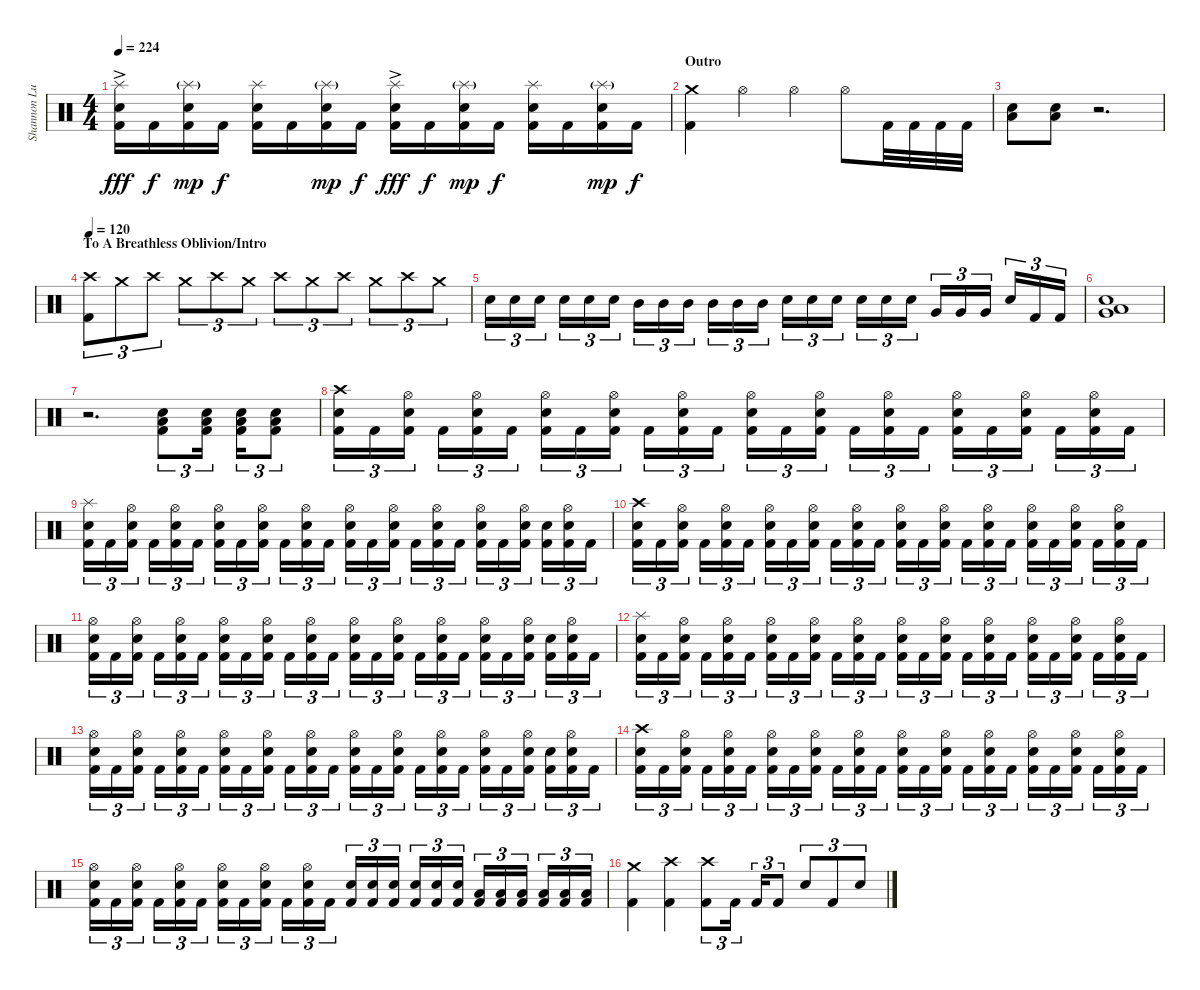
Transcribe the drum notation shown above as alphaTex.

\track ("Shannon Lucas (Drums)" "Shannon Lu") {instrument percussion}
\staff {score}
\articulation defaults
\ts (4 4)
\tempo 224
\clef neutral
\ks c
("Splash (hit)"{ac} "Snare (hit) 2" "Kick (hit) 2").16{dy fff} "Kick (hit) 2".16{dy f} ("Splash (hit)"{g} "Snare (hit) 2" "Kick (hit) 2").16{dy mp} "Kick (hit) 2".16{dy f} ("Splash (hit)" "Snare (hit) 2" "Kick (hit) 2").16 "Kick (hit) 2".16 ("Splash (hit)"{g} "Snare (hit) 2" "Kick (hit) 2").16{dy mp} "Kick (hit) 2".16{dy f} ("Splash (hit)"{ac} "Snare (hit) 2" "Kick (hit) 2").16{dy fff} "Kick (hit) 2".16{dy f} ("Splash (hit)"{g} "Snare (hit) 2" "Kick (hit) 2").16{dy mp} "Kick (hit) 2".16{dy f} ("Splash (hit)" "Snare (hit) 2" "Kick (hit) 2").16 "Kick (hit) 2".16 ("Splash (hit)"{g} "Snare (hit) 2" "Kick (hit) 2").16{dy mp} "Kick (hit) 2".16{dy f} |
\section ("" "Outro")
("Crash medium (hit)" "Kick (hit) 2").4{balance 8} "Hi-Hat (open)".4 "Hi-Hat (open)".4 "Hi-Hat (open)".8 "Kick (hit) 2".32 "Kick (hit) 2".32 "Kick (hit) 2".32 "Kick (hit) 2".32 |
("Low Floor Tom (hit)" "Snare (hit) 2").8 ("Low Floor Tom (hit)" "Snare (hit) 2").8 r.2{d} |
\section ("" "To A Breathless Oblivion/Intro")
\tempo 120
("Crash high (hit)" "Kick (hit) 2").8{tu (3 2)} "Crash medium (hit)".8{tu (3 2)} "Crash high (hit)".8{tu (3 2)} "Crash medium (hit)".8{tu (3 2)} "Crash high (hit)".8{tu (3 2)} "Crash medium (hit)".8{tu (3 2)} "Crash high (hit)".8{tu (3 2)} "Crash medium (hit)".8{tu (3 2)} "Crash high (hit)".8{tu (3 2)} "Crash medium (hit)".8{tu (3 2)} "Crash high (hit)".8{tu (3 2)} "Crash medium (hit)".8{tu (3 2)} |
"Snare (hit) 2".16{tu (3 2)} "Snare (hit) 2".16{tu (3 2)} "Snare (hit) 2".16{tu (3 2)} "Snare (hit) 2".16{tu (3 2)} "Snare (hit) 2".16{tu (3 2)} "Snare (hit) 2".16{tu (3 2)} "Mid Tom (hit)".16{tu (3 2)} "Mid Tom (hit)".16{tu (3 2)} "Mid Tom (hit)".16{tu (3 2)} "Mid Tom (hit)".16{tu (3 2)} "Mid Tom (hit)".16{tu (3 2)} "Mid Tom (hit)".16{tu (3 2)} "Snare (hit) 2".16{tu (3 2)} "Snare (hit) 2".16{tu (3 2)} "Snare (hit) 2".16{tu (3 2)} "Snare (hit) 2".16{tu (3 2)} "Snare (hit) 2".16{tu (3 2)} "Snare (hit) 2".16{tu (3 2)} "Very Low Tom (hit)".16{tu (3 2)} "Very Low Tom (hit)".16{tu (3 2)} "Very Low Tom (hit)".16{tu (3 2)} "Snare (hit) 2".16{tu (3 2)} "Kick (hit) 2".16{tu (3 2)} "Kick (hit) 2".16{tu (3 2)} |
("Very Low Tom (hit)" "Low Floor Tom (hit)" "Snare (hit) 2").1 |
r.2{d} ("Kick (hit) 2" "Low Floor Tom (hit)" "Snare (hit) 2").8{tu (3 2)} ("Kick (hit) 2" "Low Floor Tom (hit)" "Snare (hit) 2").16{tu (3 2)} ("Kick (hit) 2" "Low Floor Tom (hit)" "Snare (hit) 2").16{tu (3 2)} ("Kick (hit) 2" "Low Floor Tom (hit)" "Snare (hit) 2").8{tu (3 2)} |
("Kick (hit) 2" "Crash high (hit)" "Snare (hit) 2").16{tu (3 2)} "Kick (hit) 2".16{tu (3 2)} ("Hi-Hat (open)" "Snare (hit) 2" "Kick (hit) 2").16{tu (3 2)} "Kick (hit) 2".16{tu (3 2)} ("Hi-Hat (open)" "Snare (hit) 2" "Kick (hit) 2").16{tu (3 2)} "Kick (hit) 2".16{tu (3 2)} ("Hi-Hat (open)" "Snare (hit) 2" "Kick (hit) 2").16{tu (3 2)} "Kick (hit) 2".16{tu (3 2)} ("Hi-Hat (open)" "Snare (hit) 2" "Kick (hit) 2").16{tu (3 2)} "Kick (hit) 2".16{tu (3 2)} ("Hi-Hat (open)" "Snare (hit) 2" "Kick (hit) 2").16{tu (3 2)} "Kick (hit) 2".16{tu (3 2)} ("Hi-Hat (open)" "Snare (hit) 2" "Kick (hit) 2").16{tu (3 2)} "Kick (hit) 2".16{tu (3 2)} ("Hi-Hat (open)" "Snare (hit) 2" "Kick (hit) 2").16{tu (3 2)} "Kick (hit) 2".16{tu (3 2)} ("Hi-Hat (open)" "Snare (hit) 2" "Kick (hit) 2").16{tu (3 2)} "Kick (hit) 2".16{tu (3 2)} ("Hi-Hat (open)" "Snare (hit) 2" "Kick (hit) 2").16{tu (3 2)} "Kick (hit) 2".16{tu (3 2)} ("Hi-Hat (open)" "Snare (hit) 2" "Kick (hit) 2").16{tu (3 2)} "Kick (hit) 2".16{tu (3 2)} ("Hi-Hat (open)" "Snare (hit) 2" "Kick (hit) 2").16{tu (3 2)} "Kick (hit) 2".16{tu (3 2)} |
("Snare (hit) 2" "Splash (hit)" "Kick (hit) 2").16{tu (3 2)} "Kick (hit) 2".16{tu (3 2)} ("Hi-Hat (open)" "Snare (hit) 2" "Kick (hit) 2").16{tu (3 2)} "Kick (hit) 2".16{tu (3 2)} ("Hi-Hat (open)" "Snare (hit) 2" "Kick (hit) 2").16{tu (3 2)} "Kick (hit) 2".16{tu (3 2)} ("Hi-Hat (open)" "Snare (hit) 2" "Kick (hit) 2").16{tu (3 2)} "Kick (hit) 2".16{tu (3 2)} ("Hi-Hat (open)" "Snare (hit) 2" "Kick (hit) 2").16{tu (3 2)} "Kick (hit) 2".16{tu (3 2)} ("Hi-Hat (open)" "Snare (hit) 2" "Kick (hit) 2").16{tu (3 2)} "Kick (hit) 2".16{tu (3 2)} ("Hi-Hat (open)" "Snare (hit) 2" "Kick (hit) 2").16{tu (3 2)} "Kick (hit) 2".16{tu (3 2)} ("Hi-Hat (open)" "Snare (hit) 2" "Kick (hit) 2").16{tu (3 2)} "Kick (hit) 2".16{tu (3 2)} ("Hi-Hat (open)" "Snare (hit) 2" "Kick (hit) 2").16{tu (3 2)} "Kick (hit) 2".16{tu (3 2)} ("Hi-Hat (open)" "Snare (hit) 2" "Kick (hit) 2").16{tu (3 2)} "Kick (hit) 2".16{tu (3 2)} ("Hi-Hat (open)" "Snare (hit) 2" "Kick (hit) 2").16{tu (3 2)} ("Snare (hit) 2" "Kick (hit) 2").16{tu (3 2)} ("Hi-Hat (open)" "Snare (hit) 2" "Kick (hit) 2").16{tu (3 2)} "Kick (hit) 2".16{tu (3 2)} |
("Kick (hit) 2" "Crash high (hit)" "Snare (hit) 2").16{tu (3 2)} "Kick (hit) 2".16{tu (3 2)} ("Hi-Hat (open)" "Snare (hit) 2" "Kick (hit) 2").16{tu (3 2)} "Kick (hit) 2".16{tu (3 2)} ("Hi-Hat (open)" "Snare (hit) 2" "Kick (hit) 2").16{tu (3 2)} "Kick (hit) 2".16{tu (3 2)} ("Hi-Hat (open)" "Snare (hit) 2" "Kick (hit) 2").16{tu (3 2)} "Kick (hit) 2".16{tu (3 2)} ("Hi-Hat (open)" "Snare (hit) 2" "Kick (hit) 2").16{tu (3 2)} "Kick (hit) 2".16{tu (3 2)} ("Hi-Hat (open)" "Snare (hit) 2" "Kick (hit) 2").16{tu (3 2)} "Kick (hit) 2".16{tu (3 2)} ("Hi-Hat (open)" "Snare (hit) 2" "Kick (hit) 2").16{tu (3 2)} "Kick (hit) 2".16{tu (3 2)} ("Hi-Hat (open)" "Snare (hit) 2" "Kick (hit) 2").16{tu (3 2)} "Kick (hit) 2".16{tu (3 2)} ("Hi-Hat (open)" "Snare (hit) 2" "Kick (hit) 2").16{tu (3 2)} "Kick (hit) 2".16{tu (3 2)} ("Hi-Hat (open)" "Snare (hit) 2" "Kick (hit) 2").16{tu (3 2)} "Kick (hit) 2".16{tu (3 2)} ("Hi-Hat (open)" "Snare (hit) 2" "Kick (hit) 2").16{tu (3 2)} "Kick (hit) 2".16{tu (3 2)} ("Hi-Hat (open)" "Snare (hit) 2" "Kick (hit) 2").16{tu (3 2)} "Kick (hit) 2".16{tu (3 2)} |
("Snare (hit) 2" "Hi-Hat (open)" "Kick (hit) 2").16{tu (3 2)} "Kick (hit) 2".16{tu (3 2)} ("Hi-Hat (open)" "Snare (hit) 2" "Kick (hit) 2").16{tu (3 2)} "Kick (hit) 2".16{tu (3 2)} ("Hi-Hat (open)" "Snare (hit) 2" "Kick (hit) 2").16{tu (3 2)} "Kick (hit) 2".16{tu (3 2)} ("Hi-Hat (open)" "Snare (hit) 2" "Kick (hit) 2").16{tu (3 2)} "Kick (hit) 2".16{tu (3 2)} ("Hi-Hat (open)" "Snare (hit) 2" "Kick (hit) 2").16{tu (3 2)} "Kick (hit) 2".16{tu (3 2)} ("Hi-Hat (open)" "Snare (hit) 2" "Kick (hit) 2").16{tu (3 2)} "Kick (hit) 2".16{tu (3 2)} ("Hi-Hat (open)" "Snare (hit) 2" "Kick (hit) 2").16{tu (3 2)} "Kick (hit) 2".16{tu (3 2)} ("Hi-Hat (open)" "Snare (hit) 2" "Kick (hit) 2").16{tu (3 2)} "Kick (hit) 2".16{tu (3 2)} ("Hi-Hat (open)" "Snare (hit) 2" "Kick (hit) 2").16{tu (3 2)} "Kick (hit) 2".16{tu (3 2)} ("Hi-Hat (open)" "Snare (hit) 2" "Kick (hit) 2").16{tu (3 2)} "Kick (hit) 2".16{tu (3 2)} ("Hi-Hat (open)" "Snare (hit) 2" "Kick (hit) 2").16{tu (3 2)} ("Snare (hit) 2" "Kick (hit) 2").16{tu (3 2)} ("Hi-Hat (open)" "Snare (hit) 2" "Kick (hit) 2").16{tu (3 2)} "Kick (hit) 2".16{tu (3 2)} |
("Kick (hit) 2" "Splash (hit)" "Snare (hit) 2").16{tu (3 2)} "Kick (hit) 2".16{tu (3 2)} ("Hi-Hat (open)" "Snare (hit) 2" "Kick (hit) 2").16{tu (3 2)} "Kick (hit) 2".16{tu (3 2)} ("Hi-Hat (open)" "Snare (hit) 2" "Kick (hit) 2").16{tu (3 2)} "Kick (hit) 2".16{tu (3 2)} ("Hi-Hat (open)" "Snare (hit) 2" "Kick (hit) 2").16{tu (3 2)} "Kick (hit) 2".16{tu (3 2)} ("Hi-Hat (open)" "Snare (hit) 2" "Kick (hit) 2").16{tu (3 2)} "Kick (hit) 2".16{tu (3 2)} ("Hi-Hat (open)" "Snare (hit) 2" "Kick (hit) 2").16{tu (3 2)} "Kick (hit) 2".16{tu (3 2)} ("Hi-Hat (open)" "Snare (hit) 2" "Kick (hit) 2").16{tu (3 2)} "Kick (hit) 2".16{tu (3 2)} ("Hi-Hat (open)" "Snare (hit) 2" "Kick (hit) 2").16{tu (3 2)} "Kick (hit) 2".16{tu (3 2)} ("Hi-Hat (open)" "Snare (hit) 2" "Kick (hit) 2").16{tu (3 2)} "Kick (hit) 2".16{tu (3 2)} ("Hi-Hat (open)" "Snare (hit) 2" "Kick (hit) 2").16{tu (3 2)} "Kick (hit) 2".16{tu (3 2)} ("Hi-Hat (open)" "Snare (hit) 2" "Kick (hit) 2").16{tu (3 2)} "Kick (hit) 2".16{tu (3 2)} ("Hi-Hat (open)" "Snare (hit) 2" "Kick (hit) 2").16{tu (3 2)} "Kick (hit) 2".16{tu (3 2)} |
("Snare (hit) 2" "Hi-Hat (open)" "Kick (hit) 2").16{tu (3 2)} "Kick (hit) 2".16{tu (3 2)} ("Hi-Hat (open)" "Snare (hit) 2" "Kick (hit) 2").16{tu (3 2)} "Kick (hit) 2".16{tu (3 2)} ("Hi-Hat (open)" "Snare (hit) 2" "Kick (hit) 2").16{tu (3 2)} "Kick (hit) 2".16{tu (3 2)} ("Hi-Hat (open)" "Snare (hit) 2" "Kick (hit) 2").16{tu (3 2)} "Kick (hit) 2".16{tu (3 2)} ("Hi-Hat (open)" "Snare (hit) 2" "Kick (hit) 2").16{tu (3 2)} "Kick (hit) 2".16{tu (3 2)} ("Hi-Hat (open)" "Snare (hit) 2" "Kick (hit) 2").16{tu (3 2)} "Kick (hit) 2".16{tu (3 2)} ("Hi-Hat (open)" "Snare (hit) 2" "Kick (hit) 2").16{tu (3 2)} "Kick (hit) 2".16{tu (3 2)} ("Hi-Hat (open)" "Snare (hit) 2" "Kick (hit) 2").16{tu (3 2)} "Kick (hit) 2".16{tu (3 2)} ("Hi-Hat (open)" "Snare (hit) 2" "Kick (hit) 2").16{tu (3 2)} "Kick (hit) 2".16{tu (3 2)} ("Hi-Hat (open)" "Snare (hit) 2" "Kick (hit) 2").16{tu (3 2)} "Kick (hit) 2".16{tu (3 2)} ("Hi-Hat (open)" "Snare (hit) 2" "Kick (hit) 2").16{tu (3 2)} ("Snare (hit) 2" "Kick (hit) 2").16{tu (3 2)} ("Hi-Hat (open)" "Snare (hit) 2" "Kick (hit) 2").16{tu (3 2)} "Kick (hit) 2".16{tu (3 2)} |
("Kick (hit) 2" "Crash high (hit)" "Snare (hit) 2").16{tu (3 2)} "Kick (hit) 2".16{tu (3 2)} ("Hi-Hat (open)" "Snare (hit) 2" "Kick (hit) 2").16{tu (3 2)} "Kick (hit) 2".16{tu (3 2)} ("Hi-Hat (open)" "Snare (hit) 2" "Kick (hit) 2").16{tu (3 2)} "Kick (hit) 2".16{tu (3 2)} ("Hi-Hat (open)" "Snare (hit) 2" "Kick (hit) 2").16{tu (3 2)} "Kick (hit) 2".16{tu (3 2)} ("Hi-Hat (open)" "Snare (hit) 2" "Kick (hit) 2").16{tu (3 2)} "Kick (hit) 2".16{tu (3 2)} ("Hi-Hat (open)" "Snare (hit) 2" "Kick (hit) 2").16{tu (3 2)} "Kick (hit) 2".16{tu (3 2)} ("Hi-Hat (open)" "Snare (hit) 2" "Kick (hit) 2").16{tu (3 2)} "Kick (hit) 2".16{tu (3 2)} ("Hi-Hat (open)" "Snare (hit) 2" "Kick (hit) 2").16{tu (3 2)} "Kick (hit) 2".16{tu (3 2)} ("Hi-Hat (open)" "Snare (hit) 2" "Kick (hit) 2").16{tu (3 2)} "Kick (hit) 2".16{tu (3 2)} ("Hi-Hat (open)" "Snare (hit) 2" "Kick (hit) 2").16{tu (3 2)} "Kick (hit) 2".16{tu (3 2)} ("Hi-Hat (open)" "Snare (hit) 2" "Kick (hit) 2").16{tu (3 2)} "Kick (hit) 2".16{tu (3 2)} ("Hi-Hat (open)" "Snare (hit) 2" "Kick (hit) 2").16{tu (3 2)} "Kick (hit) 2".16{tu (3 2)} |
("Snare (hit) 2" "Hi-Hat (open)" "Kick (hit) 2").16{tu (3 2)} "Kick (hit) 2".16{tu (3 2)} ("Hi-Hat (open)" "Snare (hit) 2" "Kick (hit) 2").16{tu (3 2)} "Kick (hit) 2".16{tu (3 2)} ("Hi-Hat (open)" "Snare (hit) 2" "Kick (hit) 2").16{tu (3 2)} "Kick (hit) 2".16{tu (3 2)} ("Hi-Hat (open)" "Snare (hit) 2" "Kick (hit) 2").16{tu (3 2)} "Kick (hit) 2".16{tu (3 2)} ("Hi-Hat (open)" "Snare (hit) 2" "Kick (hit) 2").16{tu (3 2)} "Kick (hit) 2".16{tu (3 2)} ("Hi-Hat (open)" "Snare (hit) 2" "Kick (hit) 2").16{tu (3 2)} "Kick (hit) 2".16{tu (3 2)} ("Snare (hit) 2" "Kick (hit) 2").16{tu (3 2)} ("Snare (hit) 2" "Kick (hit) 2").16{tu (3 2)} ("Snare (hit) 2" "Kick (hit) 2").16{tu (3 2)} ("Snare (hit) 2" "Kick (hit) 2").16{tu (3 2)} ("Snare (hit) 2" "Kick (hit) 2").16{tu (3 2)} ("Snare (hit) 2" "Kick (hit) 2").16{tu (3 2)} ("Low Tom (hit)" "Kick (hit) 2").16{tu (3 2)} ("Low Tom (hit)" "Kick (hit) 2").16{tu (3 2)} ("Low Tom (hit)" "Kick (hit) 2").16{tu (3 2)} ("Low Tom (hit)" "Kick (hit) 2").16{tu (3 2)} ("Low Tom (hit)" "Kick (hit) 2").16{tu (3 2)} ("Low Tom (hit)" "Kick (hit) 2").16{tu (3 2)} |
("Crash medium (hit)" "Kick (hit) 2").4 ("Crash high (hit)" "Kick (hit) 2").4 ("Crash high (hit)" "Kick (hit) 2").8{tu (3 2)} "Kick (hit) 2".16{tu (3 2)} "Kick (hit) 2".16{tu (3 2)} "Kick (hit) 2".8{tu (3 2)} "Snare (hit) 2".8{tu (3 2)} "Kick (hit) 2".8{tu (3 2)} "Snare (hit) 2".8{tu (3 2)}
